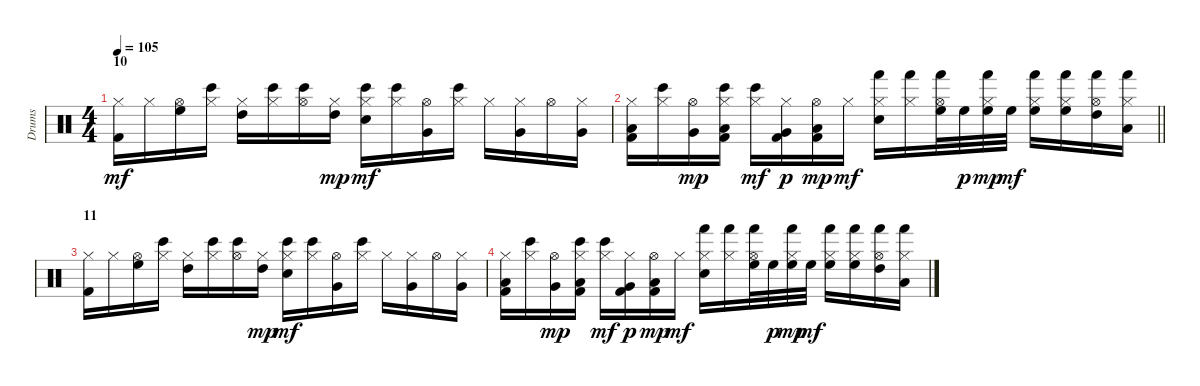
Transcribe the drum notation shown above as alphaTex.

\track ("Drums" "Drums") {instrument percussion}
\staff {score}
\articulation defaults
\ts (4 4)
\section ("" "10")
\tempo 105
\clef neutral
\ks c
("Hi-Hat (closed)" "Kick (hit) 2").16{dy mf} "Hi-Hat (closed)".16 ("Hi-Hat (open)" "High Floor Tom (hit)").16 ("Bongo High (hit)" "Hi-Hat (closed)").16 ("Hi-Hat (closed)" "High Tom (hit)").16 ("Bongo High (hit)" "Hi-Hat (closed)").16 ("Bongo High (hit)" "Hi-Hat (open)").16 ("Hi-Hat (closed)" "High Tom (hit)").16{dy mp} ("Bongo High (hit)" "Hi-Hat (closed)" "Electric Snare (hit)").16{dy mf} ("Bongo High (hit)" "Hi-Hat (closed)").16 ("Hi-Hat (open)" "Very Low Tom (hit)").16 ("Bongo High (hit)" "Hi-Hat (closed)").16 "Hi-Hat (closed)".16 ("Hi-Hat (closed)" "Very Low Tom (hit)").16 "Hi-Hat (open)".16 ("Hi-Hat (closed)" "Very Low Tom (hit)").16 |
\barLineRight lightlight
("Hi-Hat (closed)" "Kick (hit) 2" "Low Floor Tom (hit)").16 ("Bongo High (hit)" "Hi-Hat (closed)").16 ("Hi-Hat (open)" "Very Low Tom (hit)").16{dy mp} ("Bongo High (hit)" "Hi-Hat (closed)" "Kick (hit) 2" "Low Floor Tom (hit)").16 ("Bongo High (hit)" "Hi-Hat (closed)").16{dy mf} ("Hi-Hat (closed)" "Kick (hit) 2" "Very Low Tom (hit)").16{dy p} ("Hi-Hat (open)" "Kick (hit) 2" "Low Floor Tom (hit)").16{dy mp} "Hi-Hat (closed)".16{dy mf} ("Hand (hit)" "Hi-Hat (closed)" "Electric Snare (hit)").16 ("Hand (hit)" "Hi-Hat (closed)").16 ("Hand (hit)" "Hi-Hat (open)" "High Floor Tom (hit)").32 "High Floor Tom (hit)".32{dy p} ("Hand (hit)" "Hi-Hat (closed)" "High Floor Tom (hit)").32{dy mp} "High Floor Tom (hit)".32{dy mf} ("Hand (hit)" "Hi-Hat (closed)" "High Floor Tom (hit)").16 ("Hand (hit)" "Hi-Hat (closed)" "High Floor Tom (hit)").16 ("Hand (hit)" "Hi-Hat (open)" "High Tom (hit)").16 ("Hand (hit)" "Hi-Hat (closed)" "Low Tom (hit)").16 |
\section ("" "11")
("Hi-Hat (closed)" "Kick (hit) 2").16 "Hi-Hat (closed)".16 ("Hi-Hat (open)" "High Floor Tom (hit)").16 ("Bongo High (hit)" "Hi-Hat (closed)").16 ("Hi-Hat (closed)" "High Tom (hit)").16 ("Bongo High (hit)" "Hi-Hat (closed)").16 ("Bongo High (hit)" "Hi-Hat (open)").16 ("Hi-Hat (closed)" "High Tom (hit)").16{dy mp} ("Bongo High (hit)" "Hi-Hat (closed)" "Electric Snare (hit)").16{dy mf} ("Bongo High (hit)" "Hi-Hat (closed)").16 ("Hi-Hat (open)" "Very Low Tom (hit)").16 ("Bongo High (hit)" "Hi-Hat (closed)").16 "Hi-Hat (closed)".16 ("Hi-Hat (closed)" "Very Low Tom (hit)").16 "Hi-Hat (open)".16 ("Hi-Hat (closed)" "Very Low Tom (hit)").16 |
("Hi-Hat (closed)" "Kick (hit) 2" "Low Floor Tom (hit)").16 ("Bongo High (hit)" "Hi-Hat (closed)").16 ("Hi-Hat (open)" "Very Low Tom (hit)").16{dy mp} ("Bongo High (hit)" "Hi-Hat (closed)" "Kick (hit) 2" "Low Floor Tom (hit)").16 ("Bongo High (hit)" "Hi-Hat (closed)").16{dy mf} ("Hi-Hat (closed)" "Kick (hit) 2" "Very Low Tom (hit)").16{dy p} ("Hi-Hat (open)" "Kick (hit) 2" "Low Floor Tom (hit)").16{dy mp} "Hi-Hat (closed)".16{dy mf} ("Hand (hit)" "Hi-Hat (closed)" "Electric Snare (hit)").16 ("Hand (hit)" "Hi-Hat (closed)").16 ("Hand (hit)" "Hi-Hat (open)" "High Floor Tom (hit)").32 "High Floor Tom (hit)".32{dy p} ("Hand (hit)" "Hi-Hat (closed)" "High Floor Tom (hit)").32{dy mp} "High Floor Tom (hit)".32{dy mf} ("Hand (hit)" "Hi-Hat (closed)" "High Floor Tom (hit)").16 ("Hand (hit)" "Hi-Hat (closed)" "High Floor Tom (hit)").16 ("Hand (hit)" "Hi-Hat (open)" "High Tom (hit)").16 ("Hand (hit)" "Hi-Hat (closed)" "Low Tom (hit)").16
